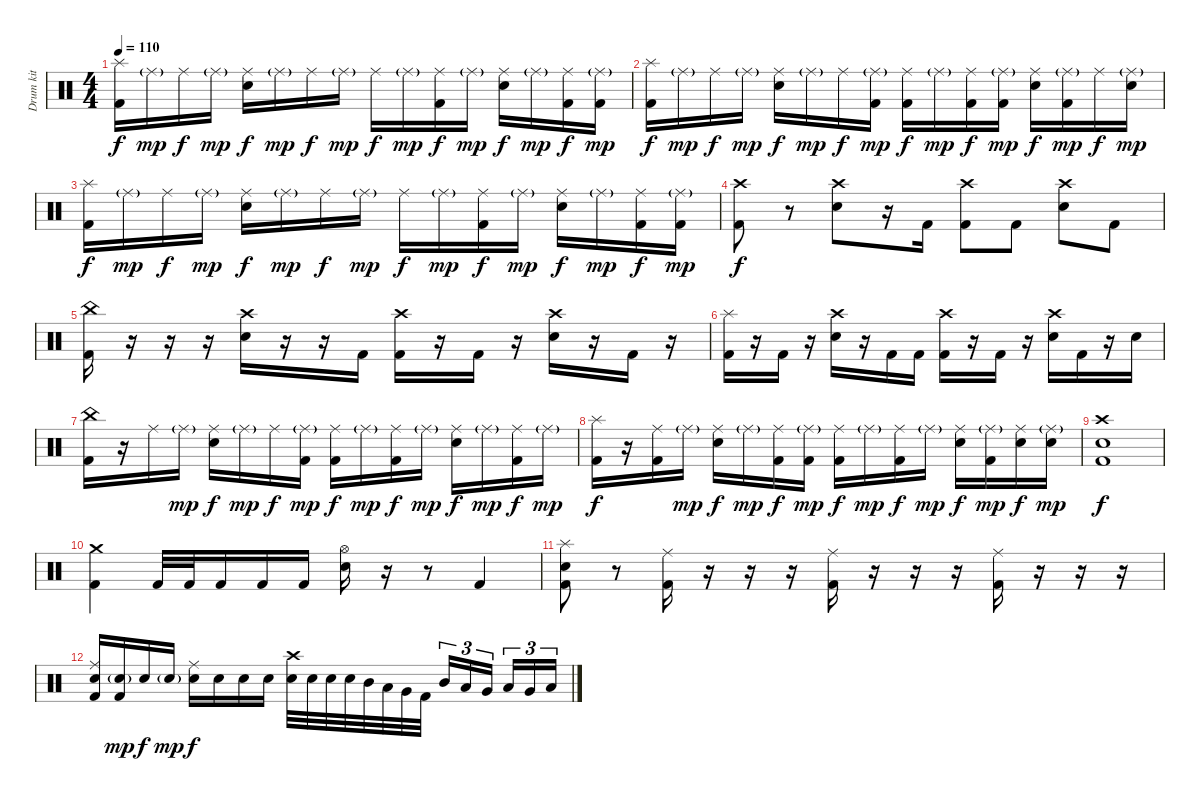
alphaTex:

\track ("Drum kit" "Drum kit") {instrument percussion}
\staff {score}
\articulation defaults
\ts (4 4)
\tempo 110
\clef neutral
\ks c
("Splash (hit)" "Kick (hit) 2").16{dy f} "Ride (middle)"{g}.16{dy mp} "Ride (middle)".16{dy f} "Ride (middle)"{g}.16{dy mp} ("Ride (middle)" "Electric Snare (hit)").16{dy f} "Ride (middle)"{g}.16{dy mp} "Ride (middle)".16{dy f} "Ride (middle)"{g}.16{dy mp} "Ride (middle)".16{dy f} "Ride (middle)"{g}.16{dy mp} ("Ride (middle)" "Kick (hit) 2").16{dy f} "Ride (middle)"{g}.16{dy mp} ("Ride (middle)" "Electric Snare (hit)").16{dy f} "Ride (middle)"{g}.16{dy mp} ("Ride (middle)" "Kick (hit) 2").16{dy f} ("Ride (middle)"{g} "Kick (hit) 2").16{dy mp} |
("Splash (hit)" "Kick (hit) 2").16{dy f} "Ride (middle)"{g}.16{dy mp} "Ride (middle)".16{dy f} "Ride (middle)"{g}.16{dy mp} ("Ride (middle)" "Electric Snare (hit)").16{dy f} "Ride (middle)"{g}.16{dy mp} "Ride (middle)".16{dy f} ("Ride (middle)"{g} "Kick (hit) 2").16{dy mp} ("Ride (middle)" "Kick (hit) 2").16{dy f} "Ride (middle)"{g}.16{dy mp} ("Ride (middle)" "Kick (hit) 2").16{dy f} ("Ride (middle)"{g} "Kick (hit) 2").16{dy mp} ("Ride (middle)" "Electric Snare (hit)").16{dy f} ("Ride (middle)"{g} "Kick (hit) 2").16{dy mp} "Ride (middle)".16{dy f} ("Ride (middle)"{g} "Electric Snare (hit)").16{dy mp} |
("Splash (hit)" "Kick (hit) 2").16{dy f} "Ride (middle)"{g}.16{dy mp} "Ride (middle)".16{dy f} "Ride (middle)"{g}.16{dy mp} ("Ride (middle)" "Electric Snare (hit)").16{dy f} "Ride (middle)"{g}.16{dy mp} "Ride (middle)".16{dy f} "Ride (middle)"{g}.16{dy mp} "Ride (middle)".16{dy f} "Ride (middle)"{g}.16{dy mp} ("Ride (middle)" "Kick (hit) 2").16{dy f} "Ride (middle)"{g}.16{dy mp} ("Ride (middle)" "Electric Snare (hit)").16{dy f} "Ride (middle)"{g}.16{dy mp} ("Ride (middle)" "Kick (hit) 2").16{dy f} ("Ride (middle)"{g} "Kick (hit) 2").16{dy mp} |
("Crash high (hit)" "Kick (hit) 2").8{dy f} r.8 ("Crash high (hit)" "Electric Snare (hit)").8 r.16 "Kick (hit) 2".16 ("Crash high (hit)" "Kick (hit) 2").8 "Kick (hit) 2".8 ("Crash high (hit)" "Electric Snare (hit)").8 "Kick (hit) 2".8 |
("China (hit)" "Kick (hit) 2").16 r.16 r.16 r.16 ("Crash high (hit)" "Electric Snare (hit)").16 r.16 r.16 "Kick (hit) 2".16 ("Crash high (hit)" "Kick (hit) 2").16 r.16 "Kick (hit) 2".16 r.16 ("Crash high (hit)" "Electric Snare (hit)").16 r.16 "Kick (hit) 2".16 r.16 |
("Splash (hit)" "Kick (hit) 2").16 r.16 "Kick (hit) 2".16 r.16 ("Crash high (hit)" "Electric Snare (hit)").16 r.16 "Kick (hit) 2".16 "Kick (hit) 2".16 ("Crash high (hit)" "Kick (hit) 2").16 r.16 "Kick (hit) 2".16 r.16 ("Crash high (hit)" "Electric Snare (hit)").16 "Kick (hit) 2".16 r.16 "Electric Snare (hit)".16 |
("China (hit)" "Kick (hit) 2").16 r.16 "Ride (middle)".16 "Ride (middle)"{g}.16{dy mp} ("Ride (middle)" "Electric Snare (hit)").16{dy f} "Ride (middle)"{g}.16{dy mp} "Ride (middle)".16{dy f} ("Ride (middle)"{g} "Kick (hit) 2").16{dy mp} ("Ride (middle)" "Kick (hit) 2").16{dy f} "Ride (middle)"{g}.16{dy mp} ("Ride (middle)" "Kick (hit) 2").16{dy f} "Ride (middle)"{g}.16{dy mp} ("Ride (middle)" "Electric Snare (hit)").16{dy f} "Ride (middle)"{g}.16{dy mp} ("Ride (middle)" "Kick (hit) 2").16{dy f} "Ride (middle)"{g}.16{dy mp} |
("Splash (hit)" "Kick (hit) 2").16{dy f} r.16 ("Ride (middle)" "Kick (hit) 2").16 "Ride (middle)"{g}.16{dy mp} ("Ride (middle)" "Electric Snare (hit)").16{dy f} "Ride (middle)"{g}.16{dy mp} ("Ride (middle)" "Kick (hit) 2").16{dy f} ("Ride (middle)"{g} "Kick (hit) 2").16{dy mp} ("Ride (middle)" "Kick (hit) 2").16{dy f} "Ride (middle)"{g}.16{dy mp} ("Ride (middle)" "Kick (hit) 2").16{dy f} "Ride (middle)"{g}.16{dy mp} ("Ride (middle)" "Electric Snare (hit)").16{dy f} ("Ride (middle)"{g} "Kick (hit) 2").16{dy mp} ("Ride (middle)" "Electric Snare (hit)").16{dy f} ("Ride (middle)"{g} "Electric Snare (hit)").16{dy mp} |
("Crash high (hit)" "Electric Snare (hit)" "Kick (hit) 2").1{dy f} |
("Crash medium (hit)" "Kick (hit) 2").4 "Kick (hit) 2".32 "Kick (hit) 2".32 "Kick (hit) 2".16 "Kick (hit) 2".16 "Kick (hit) 2".16 ("Hi-Hat (open)" "Electric Snare (hit)").16 r.16 r.8 "Kick (hit) 2".4 |
("Splash (hit)" "Electric Snare (hit)" "Kick (hit) 2").8 r.8 ("Ride (middle)" "Kick (hit) 2").16 r.16 r.16 r.16 ("Ride (middle)" "Kick (hit) 2").16 r.16 r.16 r.16 ("Ride (middle)" "Kick (hit) 2").16 r.16 r.16 r.16 |
("Ride (middle)" "Electric Snare (hit)" "Kick (hit) 2").16 ("Electric Snare (hit)"{g} "Kick (hit) 2").16{dy mp} "Electric Snare (hit)".16{dy f} "Electric Snare (hit)"{g}.16{dy mp} ("Ride (middle)" "Electric Snare (hit)").16{dy f} "Electric Snare (hit)".16 "Electric Snare (hit)".16 "Electric Snare (hit)".16 ("Crash high (hit)" "Electric Snare (hit)").32 "Electric Snare (hit)".32 "Electric Snare (hit)".32 "Electric Snare (hit)".32 "Mid Tom (hit)".32 "Low Tom (hit)".32 "Very Low Tom (hit)".32 "Kick (hit) 2".32 "Mid Tom (hit)".16{tu (3 2)} "Low Tom (hit)".16{tu (3 2)} "Very Low Tom (hit)".16{tu (3 2) beam splitsecondary} "Low Tom (hit)".16{tu (3 2)} "Very Low Tom (hit)".16{tu (3 2)} "Low Floor Tom (hit)".16{tu (3 2)}
